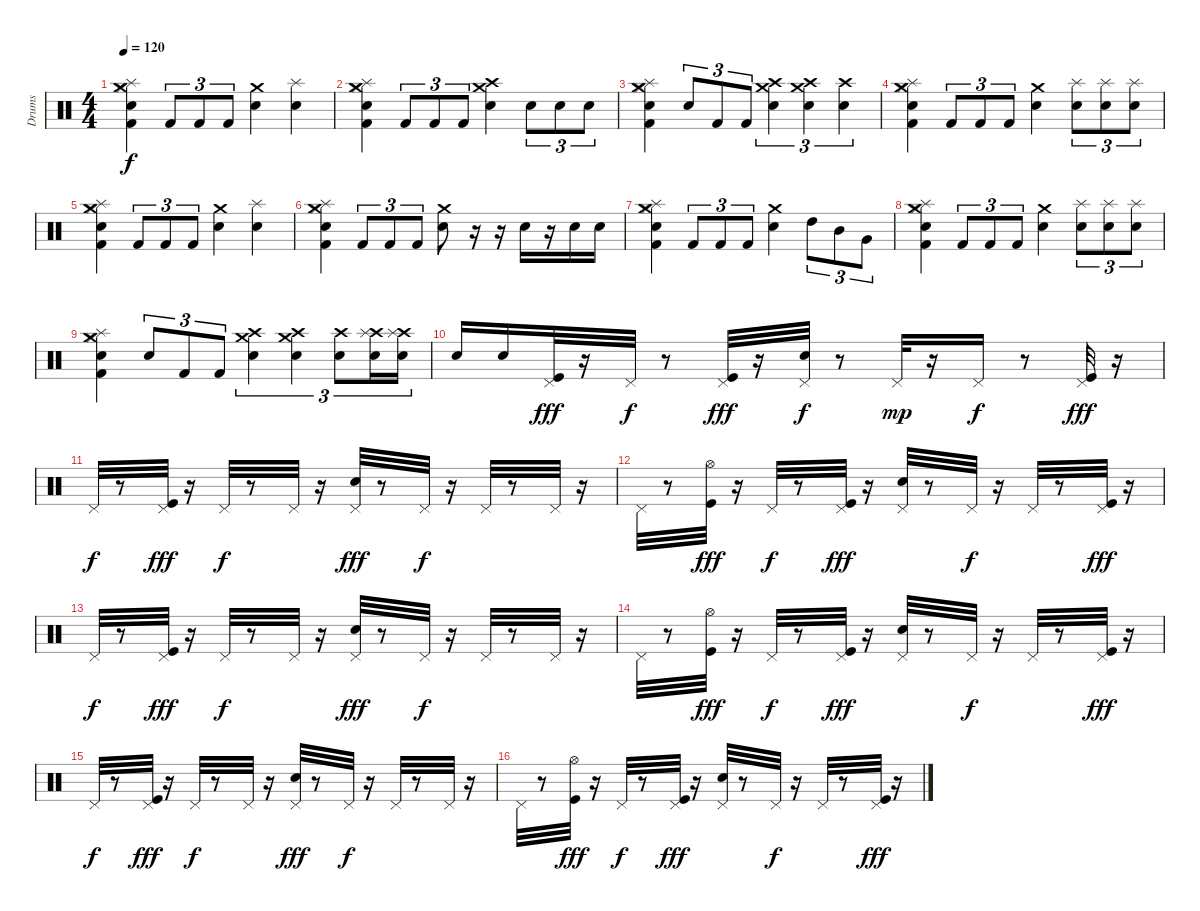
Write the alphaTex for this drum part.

\track ("Drums" "Drums") {instrument percussion}
\staff {score}
\articulation defaults
\ts (4 4)
\tempo 120
\clef neutral
\ks c
("Hi-Hat (closed)" "Snare (hit) 2" "Kick (hit) 2" "Splash (hit)" "Crash medium (hit)").4{dy f} "Kick (hit) 2".8{tu (3 2)} "Kick (hit) 2".8{tu (3 2)} "Kick (hit) 2".8{tu (3 2)} ("Snare (hit) 2" "Crash medium (hit)").4 ("Snare (hit) 2" "Splash (hit)").4 |
("Hi-Hat (closed)" "Snare (hit) 2" "Kick (hit) 2" "Splash (hit)" "Crash medium (hit)").4 "Kick (hit) 2".8{tu (3 2)} "Kick (hit) 2".8{tu (3 2)} "Kick (hit) 2".8{tu (3 2)} ("Snare (hit) 2" "Crash medium (hit)" "Crash high (hit)").4 "Snare (hit) 2".8{tu (3 2)} "Snare (hit) 2".8{tu (3 2)} "Snare (hit) 2".8{tu (3 2)} |
("Hi-Hat (closed)" "Snare (hit) 2" "Kick (hit) 2" "Splash (hit)" "Crash medium (hit)").4 "Snare (hit) 2".8{tu (3 2)} "Kick (hit) 2".8{tu (3 2)} "Kick (hit) 2".8{tu (3 2)} ("Snare (hit) 2" "Crash medium (hit)" "Crash high (hit)").4{tu (3 2)} ("Snare (hit) 2" "Crash medium (hit)" "Crash high (hit)").4{tu (3 2)} ("Snare (hit) 2" "Crash high (hit)").4{tu (3 2)} |
("Hi-Hat (closed)" "Snare (hit) 2" "Kick (hit) 2" "Splash (hit)" "Crash medium (hit)").4 "Kick (hit) 2".8{tu (3 2)} "Kick (hit) 2".8{tu (3 2)} "Kick (hit) 2".8{tu (3 2)} ("Snare (hit) 2" "Crash medium (hit)").4 ("Snare (hit) 2" "Splash (hit)").8{tu (3 2)} ("Snare (hit) 2" "Splash (hit)").8{tu (3 2)} ("Snare (hit) 2" "Splash (hit)").8{tu (3 2)} |
("Hi-Hat (closed)" "Snare (hit) 2" "Kick (hit) 2" "Splash (hit)" "Crash medium (hit)").4 "Kick (hit) 2".8{tu (3 2)} "Kick (hit) 2".8{tu (3 2)} "Kick (hit) 2".8{tu (3 2)} ("Snare (hit) 2" "Crash medium (hit)").4 ("Snare (hit) 2" "Splash (hit)").4 |
("Hi-Hat (closed)" "Snare (hit) 2" "Kick (hit) 2" "Splash (hit)" "Crash medium (hit)").4 "Kick (hit) 2".8{tu (3 2)} "Kick (hit) 2".8{tu (3 2)} "Kick (hit) 2".8{tu (3 2)} ("Snare (hit) 2" "Crash medium (hit)").8 r.16 r.16 "Snare (hit) 2".16 r.16 "Snare (hit) 2".16 "Snare (hit) 2".16 |
("Hi-Hat (closed)" "Snare (hit) 2" "Kick (hit) 2" "Splash (hit)" "Crash medium (hit)").4 "Kick (hit) 2".8{tu (3 2)} "Kick (hit) 2".8{tu (3 2)} "Kick (hit) 2".8{tu (3 2)} ("Snare (hit) 2" "Crash medium (hit)").4 "High Tom (hit)".8{tu (3 2)} "Mid Tom (hit)".8{tu (3 2)} "Very Low Tom (hit)".8{tu (3 2)} |
("Hi-Hat (closed)" "Snare (hit) 2" "Kick (hit) 2" "Splash (hit)" "Crash medium (hit)").4 "Kick (hit) 2".8{tu (3 2)} "Kick (hit) 2".8{tu (3 2)} "Kick (hit) 2".8{tu (3 2)} ("Snare (hit) 2" "Crash medium (hit)").4 ("Snare (hit) 2" "Splash (hit)").8{tu (3 2)} ("Snare (hit) 2" "Splash (hit)").8{tu (3 2)} ("Snare (hit) 2" "Splash (hit)").8{tu (3 2)} |
("Hi-Hat (closed)" "Snare (hit) 2" "Kick (hit) 2" "Splash (hit)" "Crash medium (hit)").4 "Snare (hit) 2".8{tu (3 2)} "Kick (hit) 2".8{tu (3 2)} "Kick (hit) 2".8{tu (3 2)} ("Snare (hit) 2" "Crash medium (hit)" "Crash high (hit)").4{tu (3 2)} ("Electric Snare (hit)" "Crash medium (hit)" "Crash high (hit)").4{tu (3 2)} ("Snare (hit) 2" "Crash high (hit)").8{tu (3 2)} ("Electric Snare (hit)" "Crash high (hit)" "Splash (hit)").16{tu (3 2)} ("Electric Snare (hit)" "Crash high (hit)" "Splash (hit)").16{tu (3 2)} |
"Electric Snare (hit)".16 "Electric Snare (hit)".16 ("Kick (hit)" "Pedal Hi-Hat (hit)").32{dy fff} r.16 "Pedal Hi-Hat (hit)".32{dy f} r.8 ("Kick (hit)" "Pedal Hi-Hat (hit)").32{dy fff} r.16 ("Electric Snare (hit)" "Pedal Hi-Hat (hit)").32{dy f} r.8 "Pedal Hi-Hat (hit)".32{dy mp} r.16 "Pedal Hi-Hat (hit)".16{dy f} r.8 ("Kick (hit)" "Pedal Hi-Hat (hit)").32{dy fff} r.16 |
"Pedal Hi-Hat (hit)".32{dy f} r.8 ("Kick (hit)" "Pedal Hi-Hat (hit)").32{dy fff} r.16 "Pedal Hi-Hat (hit)".32{dy f} r.8 "Pedal Hi-Hat (hit)".32 r.16 ("Pedal Hi-Hat (hit)" "Electric Snare (hit)").32{dy fff} r.8 "Pedal Hi-Hat (hit)".32{dy f} r.16 "Pedal Hi-Hat (hit)".32 r.8 "Pedal Hi-Hat (hit)".32 r.16 |
"Pedal Hi-Hat (hit)".32 r.8 ("Kick (hit)" "Hi-Hat (open)").32{dy fff} r.16 "Pedal Hi-Hat (hit)".32{dy f} r.8 ("Kick (hit)" "Pedal Hi-Hat (hit)").32{dy fff} r.16 ("Electric Snare (hit)" "Pedal Hi-Hat (hit)").32 r.8 "Pedal Hi-Hat (hit)".32{dy f} r.16 "Pedal Hi-Hat (hit)".32 r.8 ("Kick (hit)" "Pedal Hi-Hat (hit)").32{dy fff} r.16 |
"Pedal Hi-Hat (hit)".32{dy f} r.8 ("Kick (hit)" "Pedal Hi-Hat (hit)").32{dy fff} r.16 "Pedal Hi-Hat (hit)".32{dy f} r.8 "Pedal Hi-Hat (hit)".32 r.16 ("Pedal Hi-Hat (hit)" "Electric Snare (hit)").32{dy fff} r.8 "Pedal Hi-Hat (hit)".32{dy f} r.16 "Pedal Hi-Hat (hit)".32 r.8 "Pedal Hi-Hat (hit)".32 r.16 |
"Pedal Hi-Hat (hit)".32 r.8 ("Kick (hit)" "Hi-Hat (open)").32{dy fff} r.16 "Pedal Hi-Hat (hit)".32{dy f} r.8 ("Kick (hit)" "Pedal Hi-Hat (hit)").32{dy fff} r.16 ("Electric Snare (hit)" "Pedal Hi-Hat (hit)").32 r.8 "Pedal Hi-Hat (hit)".32{dy f} r.16 "Pedal Hi-Hat (hit)".32 r.8 ("Kick (hit)" "Pedal Hi-Hat (hit)").32{dy fff} r.16 |
"Pedal Hi-Hat (hit)".32{dy f} r.8 ("Kick (hit)" "Pedal Hi-Hat (hit)").32{dy fff} r.16 "Pedal Hi-Hat (hit)".32{dy f} r.8 "Pedal Hi-Hat (hit)".32 r.16 ("Pedal Hi-Hat (hit)" "Electric Snare (hit)").32{dy fff} r.8 "Pedal Hi-Hat (hit)".32{dy f} r.16 "Pedal Hi-Hat (hit)".32 r.8 "Pedal Hi-Hat (hit)".32 r.16 |
"Pedal Hi-Hat (hit)".32 r.8 ("Kick (hit)" "Hi-Hat (open)").32{dy fff} r.16 "Pedal Hi-Hat (hit)".32{dy f} r.8 ("Kick (hit)" "Pedal Hi-Hat (hit)").32{dy fff} r.16 ("Electric Snare (hit)" "Pedal Hi-Hat (hit)").32 r.8 "Pedal Hi-Hat (hit)".32{dy f} r.16 "Pedal Hi-Hat (hit)".32 r.8 ("Kick (hit)" "Pedal Hi-Hat (hit)").32{dy fff} r.16
